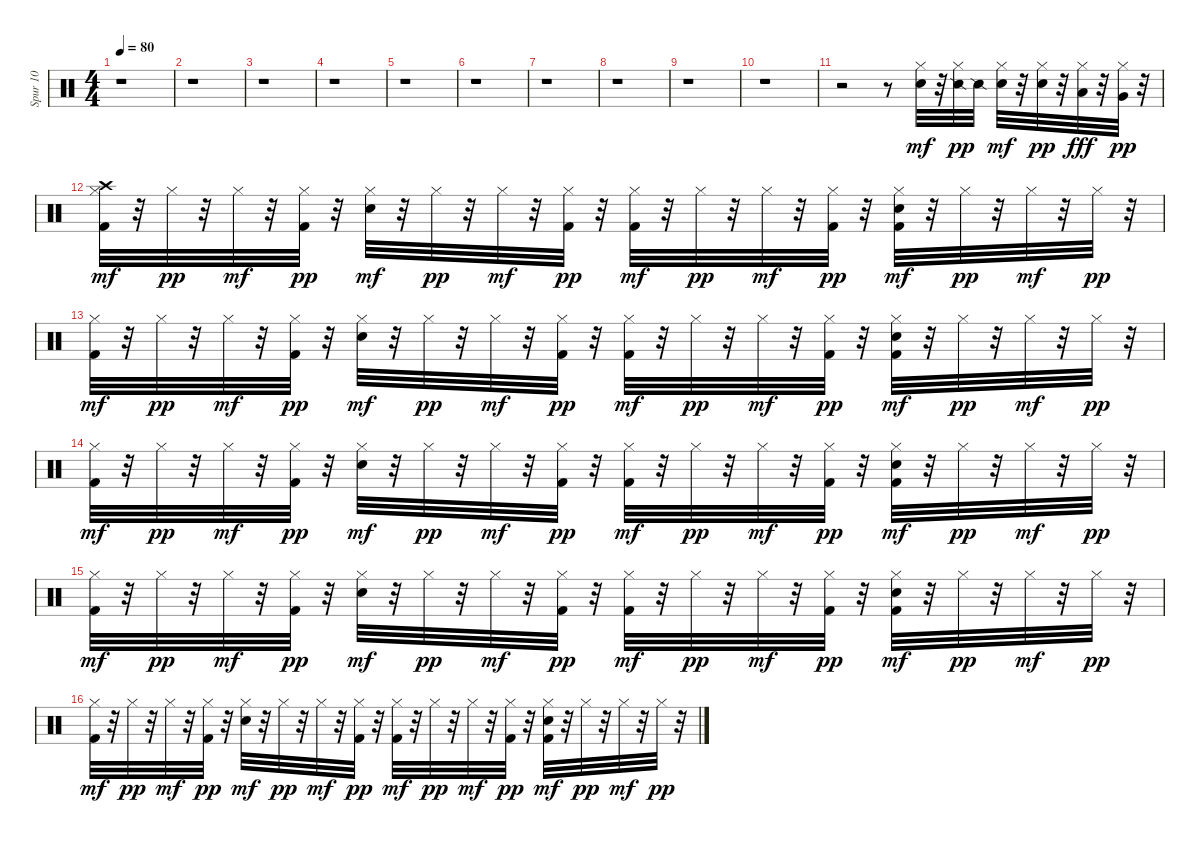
\track ("Spur 10" "Spur 10") {instrument percussion}
\staff {score}
\articulation defaults
\ts (4 4)
\tempo 80
\clef neutral
\ks c
r.1{dy mf} |
r.1 |
r.1 |
r.1 |
r.1 |
r.1 |
r.1 |
r.1 |
r.1 |
r.1 |
r.2 r.8 ("Electric Snare (hit)" "Hi-Hat (closed)").32 r.32 ("Snare (side stick) 2" "Hi-Hat (closed)").32{dy pp} "Snare (side stick) 2".32 ("Electric Snare (hit)" "Hi-Hat (closed)").32{dy mf} r.32 ("Electric Snare (hit)" "Hi-Hat (closed)").32{dy pp} r.32 ("Hi-Hat (closed)" "Low Tom (hit)").32{dy fff} r.32 ("Hi-Hat (closed)" "Very Low Tom (hit)").32{dy pp} r.32 |
("Crash high (hit)" "Kick (hit) 2" "Hi-Hat (closed)").32{dy mf} r.32 "Hi-Hat (closed)".32{dy pp} r.32 "Hi-Hat (closed)".32{dy mf} r.32 ("Kick (hit) 2" "Hi-Hat (closed)").32{dy pp} r.32 ("Electric Snare (hit)" "Hi-Hat (closed)").32{dy mf} r.32 "Hi-Hat (closed)".32{dy pp} r.32 "Hi-Hat (closed)".32{dy mf} r.32 ("Kick (hit) 2" "Hi-Hat (closed)").32{dy pp} r.32 ("Kick (hit) 2" "Hi-Hat (closed)").32{dy mf} r.32 "Hi-Hat (closed)".32{dy pp} r.32 "Hi-Hat (closed)".32{dy mf} r.32 ("Kick (hit) 2" "Hi-Hat (closed)").32{dy pp} r.32 ("Kick (hit) 2" "Electric Snare (hit)" "Hi-Hat (closed)").32{dy mf} r.32 "Hi-Hat (closed)".32{dy pp} r.32 "Hi-Hat (closed)".32{dy mf} r.32 "Hi-Hat (closed)".32{dy pp} r.32 |
("Kick (hit) 2" "Hi-Hat (closed)").32{dy mf} r.32 "Hi-Hat (closed)".32{dy pp} r.32 "Hi-Hat (closed)".32{dy mf} r.32 ("Kick (hit) 2" "Hi-Hat (closed)").32{dy pp} r.32 ("Electric Snare (hit)" "Hi-Hat (closed)").32{dy mf} r.32 "Hi-Hat (closed)".32{dy pp} r.32 "Hi-Hat (closed)".32{dy mf} r.32 ("Kick (hit) 2" "Hi-Hat (closed)").32{dy pp} r.32 ("Kick (hit) 2" "Hi-Hat (closed)").32{dy mf} r.32 "Hi-Hat (closed)".32{dy pp} r.32 "Hi-Hat (closed)".32{dy mf} r.32 ("Kick (hit) 2" "Hi-Hat (closed)").32{dy pp} r.32 ("Kick (hit) 2" "Electric Snare (hit)" "Hi-Hat (closed)").32{dy mf} r.32 "Hi-Hat (closed)".32{dy pp} r.32 "Hi-Hat (closed)".32{dy mf} r.32 "Hi-Hat (closed)".32{dy pp} r.32 |
("Kick (hit) 2" "Hi-Hat (closed)").32{dy mf} r.32 "Hi-Hat (closed)".32{dy pp} r.32 "Hi-Hat (closed)".32{dy mf} r.32 ("Kick (hit) 2" "Hi-Hat (closed)").32{dy pp} r.32 ("Electric Snare (hit)" "Hi-Hat (closed)").32{dy mf} r.32 "Hi-Hat (closed)".32{dy pp} r.32 "Hi-Hat (closed)".32{dy mf} r.32 ("Kick (hit) 2" "Hi-Hat (closed)").32{dy pp} r.32 ("Kick (hit) 2" "Hi-Hat (closed)").32{dy mf} r.32 "Hi-Hat (closed)".32{dy pp} r.32 "Hi-Hat (closed)".32{dy mf} r.32 ("Kick (hit) 2" "Hi-Hat (closed)").32{dy pp} r.32 ("Kick (hit) 2" "Electric Snare (hit)" "Hi-Hat (closed)").32{dy mf} r.32 "Hi-Hat (closed)".32{dy pp} r.32 "Hi-Hat (closed)".32{dy mf} r.32 "Hi-Hat (closed)".32{dy pp} r.32 |
("Kick (hit) 2" "Hi-Hat (closed)").32{dy mf} r.32 "Hi-Hat (closed)".32{dy pp} r.32 "Hi-Hat (closed)".32{dy mf} r.32 ("Kick (hit) 2" "Hi-Hat (closed)").32{dy pp} r.32 ("Electric Snare (hit)" "Hi-Hat (closed)").32{dy mf} r.32 "Hi-Hat (closed)".32{dy pp} r.32 "Hi-Hat (closed)".32{dy mf} r.32 ("Kick (hit) 2" "Hi-Hat (closed)").32{dy pp} r.32 ("Kick (hit) 2" "Hi-Hat (closed)").32{dy mf} r.32 "Hi-Hat (closed)".32{dy pp} r.32 "Hi-Hat (closed)".32{dy mf} r.32 ("Kick (hit) 2" "Hi-Hat (closed)").32{dy pp} r.32 ("Kick (hit) 2" "Electric Snare (hit)" "Hi-Hat (closed)").32{dy mf} r.32 "Hi-Hat (closed)".32{dy pp} r.32 "Hi-Hat (closed)".32{dy mf} r.32 "Hi-Hat (closed)".32{dy pp} r.32 |
("Kick (hit) 2" "Hi-Hat (closed)").32{dy mf} r.32 "Hi-Hat (closed)".32{dy pp} r.32 "Hi-Hat (closed)".32{dy mf} r.32 ("Kick (hit) 2" "Hi-Hat (closed)").32{dy pp} r.32 ("Electric Snare (hit)" "Hi-Hat (closed)").32{dy mf} r.32 "Hi-Hat (closed)".32{dy pp} r.32 "Hi-Hat (closed)".32{dy mf} r.32 ("Kick (hit) 2" "Hi-Hat (closed)").32{dy pp} r.32 ("Kick (hit) 2" "Hi-Hat (closed)").32{dy mf} r.32 "Hi-Hat (closed)".32{dy pp} r.32 "Hi-Hat (closed)".32{dy mf} r.32 ("Kick (hit) 2" "Hi-Hat (closed)").32{dy pp} r.32 ("Kick (hit) 2" "Electric Snare (hit)" "Hi-Hat (closed)").32{dy mf} r.32 "Hi-Hat (closed)".32{dy pp} r.32 "Hi-Hat (closed)".32{dy mf} r.32 "Hi-Hat (closed)".32{dy pp} r.32
